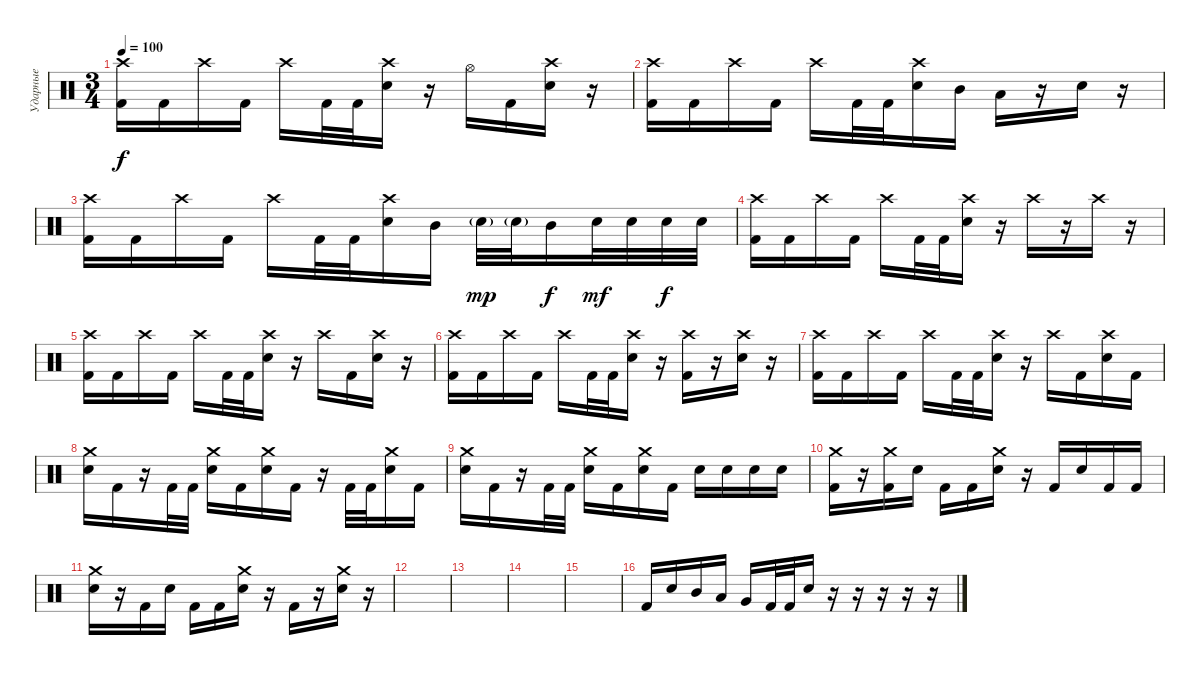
\track ("Ударные" "Ударные") {instrument percussion}
\staff {score}
\articulation defaults
\ts (3 4)
\tempo 100
\clef neutral
\ks c
("Crash high (hit)" "Kick (hit) 2").16{dy f} "Kick (hit) 2".16 "Crash high (hit)".16 "Kick (hit) 2".16 "Crash high (hit)".16 "Kick (hit) 2".32 "Kick (hit) 2".32 ("Crash high (hit)" "Electric Snare (hit)").16 r.16 "Hi-Hat (open)".16 "Kick (hit) 2".16 ("Crash high (hit)" "Electric Snare (hit)").16 r.16 |
("Crash high (hit)" "Kick (hit) 2").16 "Kick (hit) 2".16 "Crash high (hit)".16 "Kick (hit) 2".16 "Crash high (hit)".16 "Kick (hit) 2".32 "Kick (hit) 2".32 ("Crash high (hit)" "Electric Snare (hit)").16 "Mid Tom (hit)".16 "Low Tom (hit)".16 r.16 "Electric Snare (hit)".16 r.16 |
("Crash high (hit)" "Kick (hit) 2").16 "Kick (hit) 2".16 "Crash high (hit)".16 "Kick (hit) 2".16 "Crash high (hit)".16 "Kick (hit) 2".32 "Kick (hit) 2".32 ("Crash high (hit)" "Electric Snare (hit)").16 "Mid Tom (hit)".16 "Electric Snare (hit)"{g}.32{dy mp} "Electric Snare (hit)"{g}.32 "Mid Tom (hit)".16{dy f} "Electric Snare (hit)".32{dy mf} "Electric Snare (hit)".32 "Electric Snare (hit)".32{dy f} "Electric Snare (hit)".32 |
("Crash high (hit)" "Kick (hit) 2").16 "Kick (hit) 2".16 "Crash high (hit)".16 "Kick (hit) 2".16 "Crash high (hit)".16 "Kick (hit) 2".32 "Kick (hit) 2".32 ("Crash high (hit)" "Electric Snare (hit)").16 r.16 "Crash high (hit)".16 r.16 "Crash high (hit)".16 r.16 |
("Crash high (hit)" "Kick (hit) 2").16 "Kick (hit) 2".16 "Crash high (hit)".16 "Kick (hit) 2".16 "Crash high (hit)".16 "Kick (hit) 2".32 "Kick (hit) 2".32 ("Crash high (hit)" "Electric Snare (hit)").16 r.16 "Crash high (hit)".16 "Kick (hit) 2".16 ("Crash high (hit)" "Electric Snare (hit)").16 r.16 |
("Crash high (hit)" "Kick (hit) 2").16 "Kick (hit) 2".16 "Crash high (hit)".16 "Kick (hit) 2".16 "Crash high (hit)".16 "Kick (hit) 2".32 "Kick (hit) 2".32 ("Crash high (hit)" "Electric Snare (hit)").16 r.16 ("Crash high (hit)" "Kick (hit) 2").16 r.16 ("Crash high (hit)" "Electric Snare (hit)").16 r.16 |
("Crash high (hit)" "Kick (hit) 2").16 "Kick (hit) 2".16 "Crash high (hit)".16 "Kick (hit) 2".16 "Crash high (hit)".16 "Kick (hit) 2".32 "Kick (hit) 2".32 ("Crash high (hit)" "Electric Snare (hit)").16 r.16 "Crash high (hit)".16 "Kick (hit) 2".16 ("Crash high (hit)" "Electric Snare (hit)").16 "Kick (hit) 2".16 |
("Crash medium (hit)" "Electric Snare (hit)").16 "Kick (hit) 2".16 r.16 "Kick (hit) 2".32 "Kick (hit) 2".32 ("Crash medium (hit)" "Electric Snare (hit)").16 "Kick (hit) 2".16 ("Crash medium (hit)" "Electric Snare (hit)").16 "Kick (hit) 2".16 r.16 "Kick (hit) 2".32 "Kick (hit) 2".32 ("Crash medium (hit)" "Electric Snare (hit)").16 "Kick (hit) 2".16 |
("Crash medium (hit)" "Electric Snare (hit)").16 "Kick (hit) 2".16 r.16 "Kick (hit) 2".32 "Kick (hit) 2".32 ("Crash medium (hit)" "Electric Snare (hit)").16 "Kick (hit) 2".16 ("Crash medium (hit)" "Electric Snare (hit)").16 "Kick (hit) 2".16 "Electric Snare (hit)".16 "Electric Snare (hit)".16 "Electric Snare (hit)".16 "Electric Snare (hit)".16 |
("Crash medium (hit)" "Kick (hit) 2").16 r.16 ("Crash medium (hit)" "Kick (hit) 2").16 "Electric Snare (hit)".16 "Kick (hit) 2".16 "Kick (hit) 2".16 ("Crash medium (hit)" "Electric Snare (hit)").16 r.16 "Kick (hit) 2".16 "Electric Snare (hit)".16 "Kick (hit) 2".16 "Kick (hit) 2".16 |
("Crash medium (hit)" "Electric Snare (hit)").16 r.16 "Kick (hit) 2".16 "Electric Snare (hit)".16 "Kick (hit) 2".16 "Kick (hit) 2".16 ("Crash medium (hit)" "Electric Snare (hit)").16 r.16 "Kick (hit) 2".16 r.16 ("Crash medium (hit)" "Electric Snare (hit)").16 r.16 |
|
|
|
|
"Kick (hit) 2".16 "Electric Snare (hit)".16 "Mid Tom (hit)".16 "Low Tom (hit)".16 "Very Low Tom (hit)".16 "Kick (hit) 2".32 "Kick (hit) 2".32 "Electric Snare (hit)".16 r.16 r.16 r.16 r.16 r.16
